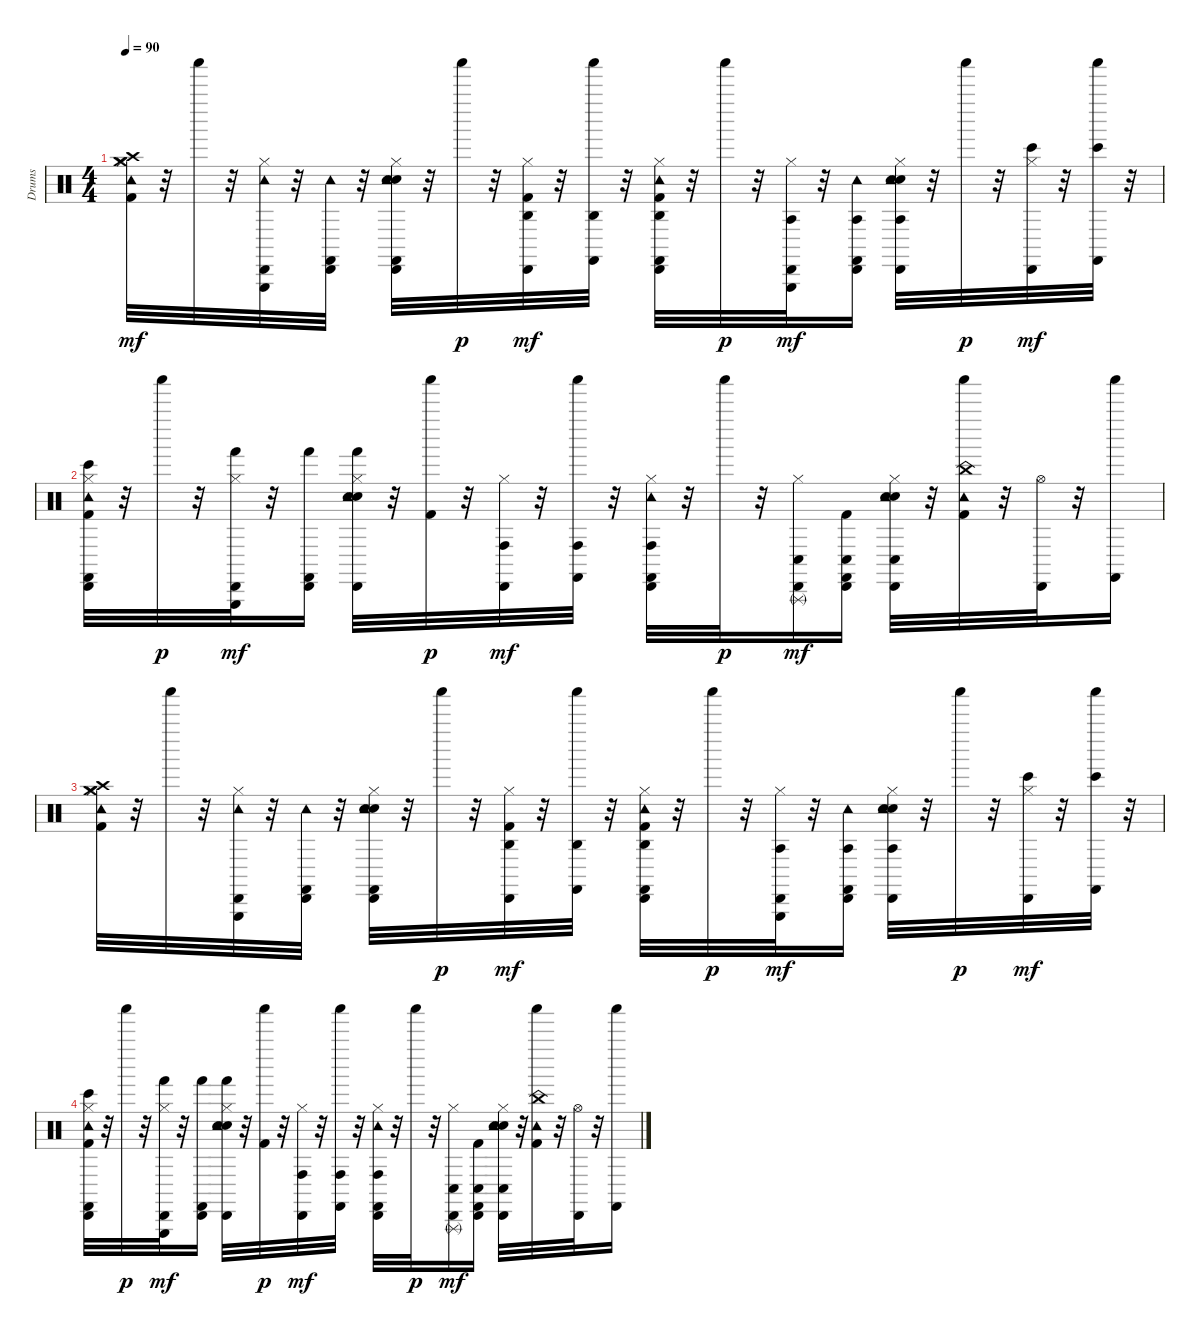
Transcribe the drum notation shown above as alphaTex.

\track ("Drums" "Drums") {instrument percussion}
\staff {score}
\articulation defaults
\ts (4 4)
\tempo 90
\clef neutral
\ks c
("Hi-Hat (closed)" "Kick (hit) 2" "Tambourine (hit)" "Crash high (hit)" "Crash medium (hit)" "Hi-Hat (closed)").32{dy mf} r.32 "Shaker (hit)".32 r.32 ("Hi-Hat (closed)" "Tambourine (hit)" "Cabasa (hit)" "Triangle (hit)").32 r.32 ("Tambourine (hit)" "Cabasa (hit)" "Castanets (hit)").32 r.32 ("Electric Snare (hit)" "Hi-Hat (closed)" "Snare (hit) 2" "Tambourine (hit)" "Cabasa (hit)" "Castanets (hit)").32 r.32 "Shaker (hit)".32{dy p} r.32 ("Hi-Hat (closed)" "Kick (hit) 2" "Agogo high (hit)" "Cabasa (hit)").32{dy mf} r.32 ("Agogo high (hit)" "Shaker (hit)" "Castanets (hit)").32 r.32 ("Hi-Hat (closed)" "Kick (hit) 2" "Agogo high (hit)" "Cabasa (hit)" "Tambourine (hit)" "Castanets (hit)").32 r.32 "Shaker (hit)".32{dy p} r.32 ("Hi-Hat (closed)" "Agogo tow (hit)" "Cabasa (hit)" "Triangle (hit)").32{dy mf} r.32 ("Agogo tow (hit)" "Cabasa (hit)" "Tambourine (hit)" "Castanets (hit)").16 ("Electric Snare (hit)" "Hi-Hat (closed)" "Snare (hit) 2" "Agogo tow (hit)" "Tambourine (hit)" "Cabasa (hit)").32 r.32 "Shaker (hit)".32{dy p} r.32 ("Hi-Hat (closed)" "Bongo High (hit)" "Cabasa (hit)").32{dy mf} r.32 ("Bongo High (hit)" "Shaker (hit)" "Castanets (hit)").32 r.32 |
("Hi-Hat (closed)" "Kick (hit) 2" "Bongo High (hit)" "Cabasa (hit)" "Tambourine (hit)" "Castanets (hit)").32 r.32 "Shaker (hit)".32{dy p} r.32 ("Hi-Hat (closed)" "Hand (hit)" "Cabasa (hit)" "Triangle (hit)").32{dy mf} r.32 ("Hand (hit)" "Cabasa (hit)" "Castanets (hit)").16 ("Electric Snare (hit)" "Hi-Hat (closed)" "Snare (hit) 2" "Hand (hit)" "Cabasa (hit)" "Tambourine (hit)").32 r.32 ("Kick (hit) 2" "Shaker (hit)").32{dy p} r.32 ("Hi-Hat (closed)" "Conga high (hit)" "Cabasa (hit)").32{dy mf} r.32 ("Conga high (hit)" "Shaker (hit)" "Castanets (hit)").32 r.32 ("Hi-Hat (closed)" "Conga high (hit)" "Cabasa (hit)" "Tambourine (hit)" "Castanets (hit)").32 r.32 "Shaker (hit)".32{dy p} r.32 ("Hi-Hat (closed)" "Conga low (hit)" "Cabasa (hit)" "Triangle (rnute)").16{dy mf} ("Kick (hit) 2" "Conga low (hit)" "Cabasa (hit)" "Castanets (hit)").16 ("Electric Snare (hit)" "Hi-Hat (closed)" "Snare (hit) 2" "Conga low (hit)" "Cabasa (hit)" "Tambourine (hit)").32 r.32 ("Kick (hit) 2" "Tambourine (hit)" "Shaker (hit)" "China (hit)").32 r.32 ("Hi-Hat (open)" "Cabasa (hit)").32 r.32 ("Shaker (hit)" "Castanets (hit)").16 |
("Hi-Hat (closed)" "Kick (hit) 2" "Tambourine (hit)" "Crash high (hit)" "Crash medium (hit)" "Hi-Hat (closed)").32 r.32 "Shaker (hit)".32 r.32 ("Hi-Hat (closed)" "Tambourine (hit)" "Cabasa (hit)" "Triangle (hit)").32 r.32 ("Tambourine (hit)" "Cabasa (hit)" "Castanets (hit)").32 r.32 ("Electric Snare (hit)" "Hi-Hat (closed)" "Snare (hit) 2" "Tambourine (hit)" "Cabasa (hit)" "Castanets (hit)").32 r.32 "Shaker (hit)".32{dy p} r.32 ("Hi-Hat (closed)" "Kick (hit) 2" "Agogo high (hit)" "Cabasa (hit)").32{dy mf} r.32 ("Agogo high (hit)" "Shaker (hit)" "Castanets (hit)").32 r.32 ("Hi-Hat (closed)" "Kick (hit) 2" "Agogo high (hit)" "Cabasa (hit)" "Tambourine (hit)" "Castanets (hit)").32 r.32 "Shaker (hit)".32{dy p} r.32 ("Hi-Hat (closed)" "Agogo tow (hit)" "Cabasa (hit)" "Triangle (hit)").32{dy mf} r.32 ("Agogo tow (hit)" "Cabasa (hit)" "Tambourine (hit)" "Castanets (hit)").16 ("Electric Snare (hit)" "Hi-Hat (closed)" "Snare (hit) 2" "Agogo tow (hit)" "Tambourine (hit)" "Cabasa (hit)").32 r.32 "Shaker (hit)".32{dy p} r.32 ("Hi-Hat (closed)" "Bongo High (hit)" "Cabasa (hit)").32{dy mf} r.32 ("Bongo High (hit)" "Shaker (hit)" "Castanets (hit)").32 r.32 |
("Hi-Hat (closed)" "Kick (hit) 2" "Bongo High (hit)" "Cabasa (hit)" "Tambourine (hit)" "Castanets (hit)").32 r.32 "Shaker (hit)".32{dy p} r.32 ("Hi-Hat (closed)" "Hand (hit)" "Cabasa (hit)" "Triangle (hit)").32{dy mf} r.32 ("Hand (hit)" "Cabasa (hit)" "Castanets (hit)").16 ("Electric Snare (hit)" "Hi-Hat (closed)" "Snare (hit) 2" "Hand (hit)" "Cabasa (hit)" "Tambourine (hit)").32 r.32 ("Kick (hit) 2" "Shaker (hit)").32{dy p} r.32 ("Hi-Hat (closed)" "Conga high (hit)" "Cabasa (hit)").32{dy mf} r.32 ("Conga high (hit)" "Shaker (hit)" "Castanets (hit)").32 r.32 ("Hi-Hat (closed)" "Conga high (hit)" "Cabasa (hit)" "Tambourine (hit)" "Castanets (hit)").32 r.32 "Shaker (hit)".32{dy p} r.32 ("Hi-Hat (closed)" "Conga low (hit)" "Cabasa (hit)" "Triangle (rnute)").16{dy mf} ("Kick (hit) 2" "Conga low (hit)" "Cabasa (hit)" "Castanets (hit)").16 ("Electric Snare (hit)" "Hi-Hat (closed)" "Snare (hit) 2" "Conga low (hit)" "Cabasa (hit)" "Tambourine (hit)").32 r.32 ("Kick (hit) 2" "Tambourine (hit)" "Shaker (hit)" "China (hit)").32 r.32 ("Hi-Hat (open)" "Cabasa (hit)").32 r.32 ("Shaker (hit)" "Castanets (hit)").16
